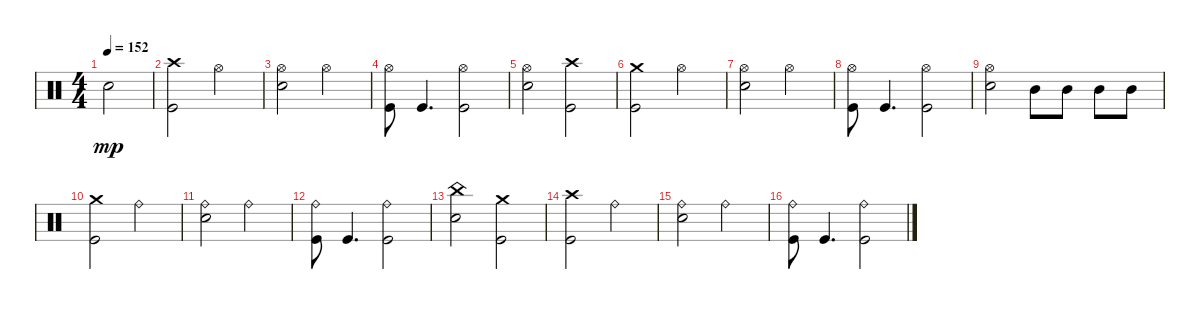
\track "" {instrument percussion}
\staff {score}
\articulation defaults
\ts (4 4)
\tempo 152
\clef neutral
\ks c "Snare (hit) 2".2{dy mp}
|
("Kick (hit)" "Crash high (hit)").2 "Hi-Hat (open)".2 |
("Hi-Hat (open)" "Snare (hit) 2").2 "Hi-Hat (open)".2 |
("Hi-Hat (open)" "Kick (hit)").8 "Kick (hit)".4{d} ("Hi-Hat (open)" "Kick (hit)").2 |
("Snare (hit) 2" "Hi-Hat (open)").2 ("Crash high (hit)" "Kick (hit)").2 |
("Kick (hit)" "Crash medium (hit)").2 "Hi-Hat (open)".2 |
("Hi-Hat (open)" "Snare (hit) 2").2 "Hi-Hat (open)".2 |
("Hi-Hat (open)" "Kick (hit)").8 "Kick (hit)".4{d} ("Hi-Hat (open)" "Kick (hit)").2 |
("Snare (hit) 2" "Hi-Hat (open)").2 "Mid Tom (hit)".8 "Mid Tom (hit)".8 "Mid Tom (hit)".8 "Mid Tom (hit)".8 |
("Kick (hit)" "Crash medium (hit)").2 "Ride (bell)".2 |
("Ride (bell)" "Snare (hit) 2").2 "Ride (bell)".2 |
("Ride (bell)" "Kick (hit)").8 "Kick (hit)".4{d} ("Kick (hit)" "Ride (bell)").2 |
("China (hit)" "Snare (hit) 2").2 ("Kick (hit)" "Crash medium (hit)").2 |
("Kick (hit)" "Crash high (hit)").2 "Ride (bell)".2 |
("Ride (bell)" "Snare (hit) 2").2 "Ride (bell)".2 |
("Ride (bell)" "Kick (hit)").8 "Kick (hit)".4{d} ("Kick (hit)" "Ride (bell)").2
